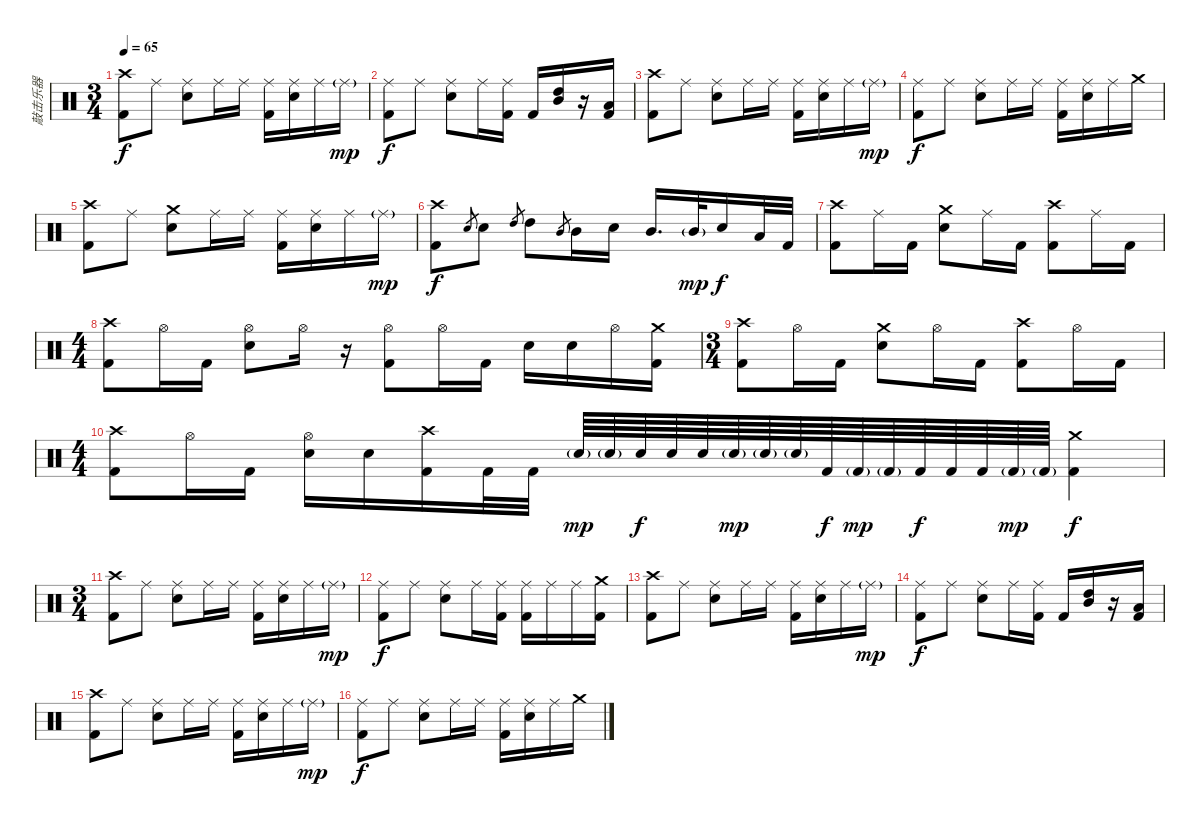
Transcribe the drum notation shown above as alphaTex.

\track ("敲击乐器" "敲击乐器") {instrument percussion}
\staff {score}
\articulation defaults
\ts (3 4)
\tempo 65
\clef neutral
\ks c
("Crash high (hit)" "Kick (hit) 2").8{dy f} "Ride (middle)".8 ("Ride (middle)" "Snare (hit) 2").8 "Ride (middle)".16 "Ride (middle)".16 ("Ride (middle)" "Kick (hit) 2").16 ("Ride (middle)" "Snare (hit) 2").16 "Ride (middle)".16 "Ride (middle)"{g}.16{dy mp} |
("Ride (middle)" "Kick (hit) 2").8{dy f} "Ride (middle)".8 ("Ride (middle)" "Snare (hit) 2").8 "Ride (middle)".16 ("Ride (middle)" "Kick (hit) 2").16 "Kick (hit) 2".16 ("Mid Tom (hit)" "High Tom (hit)").16 r.16 ("Low Tom (hit)" "Kick (hit) 2").16 |
("Crash high (hit)" "Kick (hit) 2").8 "Ride (middle)".8 ("Ride (middle)" "Snare (hit) 2").8 "Ride (middle)".16 "Ride (middle)".16 ("Ride (middle)" "Kick (hit) 2").16 ("Ride (middle)" "Snare (hit) 2").16 "Ride (middle)".16 "Ride (middle)"{g}.16{dy mp} |
("Ride (middle)" "Kick (hit) 2").8{dy f} "Ride (middle)".8 ("Ride (middle)" "Snare (hit) 2").8 "Ride (middle)".16 "Ride (middle)".16 ("Ride (middle)" "Kick (hit) 2").16 ("Ride (middle)" "Snare (hit) 2").16 "Ride (middle)".16 "Crash medium (hit)".16 |
("Crash high (hit)" "Kick (hit) 2").8 "Ride (middle)".8 ("Crash medium (hit)" "Snare (hit) 2").8 "Ride (middle)".16 "Ride (middle)".16 ("Ride (middle)" "Kick (hit) 2").16 ("Ride (middle)" "Snare (hit) 2").16 "Ride (middle)".16 "Ride (middle)"{g}.16{dy mp} |
("Kick (hit) 2" "Crash high (hit)").8{dy f} "Snare (hit) 2".8{gr} "Snare (hit) 2".8 "High Tom (hit)".8{gr} "High Tom (hit)".8 "Mid Tom (hit)".8{gr} "Mid Tom (hit)".16 "Snare (hit) 2".16 "Mid Tom (hit)".16{d} "Mid Tom (hit)"{g}.32{dy mp} "Snare (hit) 2".16{dy f} "Low Tom (hit)".32 "Kick (hit) 2".32 |
("Kick (hit) 2" "Crash high (hit)").8 "Ride (middle)".16 "Kick (hit) 2".16 ("Snare (hit) 2" "Crash medium (hit)").8 "Ride (middle)".16 "Kick (hit) 2".16 ("Crash high (hit)" "Kick (hit) 2").8 "Ride (middle)".16 "Kick (hit) 2".16 |
\ts (4 4)
("Kick (hit) 2" "Crash high (hit)").8 "Hi-Hat (open)".16 "Kick (hit) 2".16 ("Hi-Hat (open)" "Snare (hit) 2").8 "Hi-Hat (open)".16 r.16 ("Kick (hit) 2" "Hi-Hat (open)").8 "Hi-Hat (open)".16 "Kick (hit) 2".16 "Snare (hit) 2".16 "Snare (hit) 2".16 "Hi-Hat (open)".16 ("Kick (hit) 2" "Crash medium (hit)").16 |
\ts (3 4)
("Kick (hit) 2" "Crash high (hit)").8 "Hi-Hat (open)".16 "Kick (hit) 2".16 ("Snare (hit) 2" "Crash medium (hit)").8 "Hi-Hat (open)".16 "Kick (hit) 2".16 ("Crash high (hit)" "Kick (hit) 2").8 "Hi-Hat (open)".16 "Kick (hit) 2".16 |
\ts (4 4)
("Crash high (hit)" "Kick (hit) 2").8 "Hi-Hat (open)".16 "Kick (hit) 2".16 ("Hi-Hat (open)" "Snare (hit) 2").16 "Snare (hit) 2".16 ("Crash high (hit)" "Kick (hit) 2").16 "Kick (hit) 2".32 "Kick (hit) 2".32 "Snare (hit) 2"{g}.64{dy mp} "Snare (hit) 2"{g}.64 "Snare (hit) 2".64{dy f} "Snare (hit) 2".64 "Snare (hit) 2".64 "Snare (hit) 2"{g}.64{dy mp} "Snare (hit) 2"{g}.64 "Snare (hit) 2"{g}.64 "Kick (hit) 2".64{dy f} "Kick (hit) 2"{g}.64{dy mp} "Kick (hit) 2"{g}.64 "Kick (hit) 2".64{dy f} "Kick (hit) 2".64 "Kick (hit) 2".64 "Kick (hit) 2"{g}.64{dy mp} "Kick (hit) 2"{g}.64 ("Kick (hit) 2" "Crash medium (hit)").4{dy f} |
\ts (3 4)
("Crash high (hit)" "Kick (hit) 2").8 "Ride (middle)".8 ("Ride (middle)" "Snare (hit) 2").8 "Ride (middle)".16 "Ride (middle)".16 ("Ride (middle)" "Kick (hit) 2").16 ("Ride (middle)" "Snare (hit) 2").16 "Ride (middle)".16 "Ride (middle)"{g}.16{dy mp} |
("Ride (middle)" "Kick (hit) 2").8{dy f} "Ride (middle)".8 ("Ride (middle)" "Snare (hit) 2").8 "Ride (middle)".16 ("Ride (middle)" "Kick (hit) 2").16 ("Ride (middle)" "Kick (hit) 2").16 "Ride (middle)".16 "Ride (middle)".16 ("Crash medium (hit)" "Kick (hit) 2").16 |
("Crash high (hit)" "Kick (hit) 2").8 "Ride (middle)".8 ("Ride (middle)" "Snare (hit) 2").8 "Ride (middle)".16 "Ride (middle)".16 ("Ride (middle)" "Kick (hit) 2").16 ("Ride (middle)" "Snare (hit) 2").16 "Ride (middle)".16 "Ride (middle)"{g}.16{dy mp} |
("Ride (middle)" "Kick (hit) 2").8{dy f} "Ride (middle)".8 ("Ride (middle)" "Snare (hit) 2").8 "Ride (middle)".16 ("Ride (middle)" "Kick (hit) 2").16 "Kick (hit) 2".16 ("Mid Tom (hit)" "High Tom (hit)").16 r.16 ("Low Tom (hit)" "Kick (hit) 2").16 |
("Crash high (hit)" "Kick (hit) 2").8 "Ride (middle)".8 ("Ride (middle)" "Snare (hit) 2").8 "Ride (middle)".16 "Ride (middle)".16 ("Ride (middle)" "Kick (hit) 2").16 ("Ride (middle)" "Snare (hit) 2").16 "Ride (middle)".16 "Ride (middle)"{g}.16{dy mp} |
("Ride (middle)" "Kick (hit) 2").8{dy f} "Ride (middle)".8 ("Ride (middle)" "Snare (hit) 2").8 "Ride (middle)".16 "Ride (middle)".16 ("Ride (middle)" "Kick (hit) 2").16 ("Ride (middle)" "Snare (hit) 2").16 "Ride (middle)".16 "Crash medium (hit)".16
